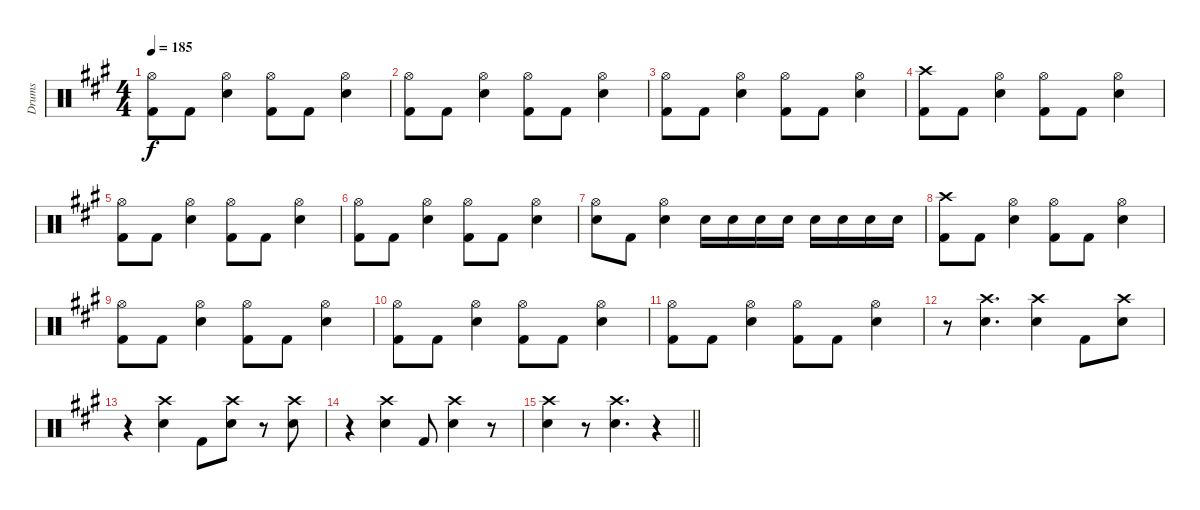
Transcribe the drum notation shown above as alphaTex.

\track ("Drums" "Drums") {instrument percussion}
\staff {score}
\articulation defaults
\ts (4 4)
\tempo 185
\clef neutral
\ks f#minor
("Hi-Hat (open)" "Kick (hit) 2").8{dy f} "Kick (hit) 2".8 ("Hi-Hat (open)" "Electric Snare (hit)").4 ("Hi-Hat (open)" "Kick (hit) 2").8 "Kick (hit) 2".8 ("Hi-Hat (open)" "Electric Snare (hit)").4 |
("Hi-Hat (open)" "Kick (hit) 2").8 "Kick (hit) 2".8 ("Hi-Hat (open)" "Electric Snare (hit)").4 ("Hi-Hat (open)" "Kick (hit) 2").8 "Kick (hit) 2".8 ("Hi-Hat (open)" "Electric Snare (hit)").4 |
("Hi-Hat (open)" "Kick (hit) 2").8 "Kick (hit) 2".8 ("Hi-Hat (open)" "Electric Snare (hit)").4 ("Hi-Hat (open)" "Kick (hit) 2").8 "Kick (hit) 2".8 ("Hi-Hat (open)" "Electric Snare (hit)").4 |
("Crash high (hit)" "Kick (hit) 2").8 "Kick (hit) 2".8 ("Hi-Hat (open)" "Electric Snare (hit)").4 ("Hi-Hat (open)" "Kick (hit) 2").8 "Kick (hit) 2".8 ("Hi-Hat (open)" "Electric Snare (hit)").4 |
("Hi-Hat (open)" "Kick (hit) 2").8 "Kick (hit) 2".8 ("Hi-Hat (open)" "Electric Snare (hit)").4 ("Hi-Hat (open)" "Kick (hit) 2").8 "Kick (hit) 2".8 ("Hi-Hat (open)" "Electric Snare (hit)").4 |
("Hi-Hat (open)" "Kick (hit) 2").8 "Kick (hit) 2".8 ("Hi-Hat (open)" "Electric Snare (hit)").4 ("Hi-Hat (open)" "Kick (hit) 2").8 "Kick (hit) 2".8 ("Hi-Hat (open)" "Electric Snare (hit)").4 |
("Hi-Hat (open)" "Electric Snare (hit)").8 "Kick (hit) 2".8 ("Hi-Hat (open)" "Electric Snare (hit)").4 "Electric Snare (hit)".16 "Electric Snare (hit)".16 "Electric Snare (hit)".16 "Electric Snare (hit)".16 "Electric Snare (hit)".16 "Electric Snare (hit)".16 "Electric Snare (hit)".16 "Electric Snare (hit)".16 |
("Crash high (hit)" "Kick (hit) 2").8 "Kick (hit) 2".8 ("Hi-Hat (open)" "Electric Snare (hit)").4 ("Hi-Hat (open)" "Kick (hit) 2").8 "Kick (hit) 2".8 ("Hi-Hat (open)" "Electric Snare (hit)").4 |
("Hi-Hat (open)" "Kick (hit) 2").8 "Kick (hit) 2".8 ("Hi-Hat (open)" "Electric Snare (hit)").4 ("Hi-Hat (open)" "Kick (hit) 2").8 "Kick (hit) 2".8 ("Hi-Hat (open)" "Electric Snare (hit)").4 |
("Hi-Hat (open)" "Kick (hit) 2").8 "Kick (hit) 2".8 ("Hi-Hat (open)" "Electric Snare (hit)").4 ("Hi-Hat (open)" "Kick (hit) 2").8 "Kick (hit) 2".8 ("Hi-Hat (open)" "Electric Snare (hit)").4 |
("Hi-Hat (open)" "Kick (hit) 2").8 "Kick (hit) 2".8 ("Hi-Hat (open)" "Electric Snare (hit)").4 ("Hi-Hat (open)" "Kick (hit) 2").8 "Kick (hit) 2".8 ("Hi-Hat (open)" "Electric Snare (hit)").4 |
r.8 ("Crash high (hit)" "Electric Snare (hit)").4{d} ("Crash high (hit)" "Electric Snare (hit)").4 "Kick (hit) 2".8 ("Crash high (hit)" "Electric Snare (hit)").8 |
r.4 ("Crash high (hit)" "Electric Snare (hit)").4 "Kick (hit) 2".8 ("Crash high (hit)" "Electric Snare (hit)").8 r.8 ("Crash high (hit)" "Electric Snare (hit)").8 |
r.4 ("Crash high (hit)" "Electric Snare (hit)").4 "Kick (hit) 2".8 ("Crash high (hit)" "Electric Snare (hit)").4 r.8 |
\barLineRight lightlight
("Crash high (hit)" "Electric Snare (hit)").4 r.8 ("Crash high (hit)" "Electric Snare (hit)").4{d} r.4
